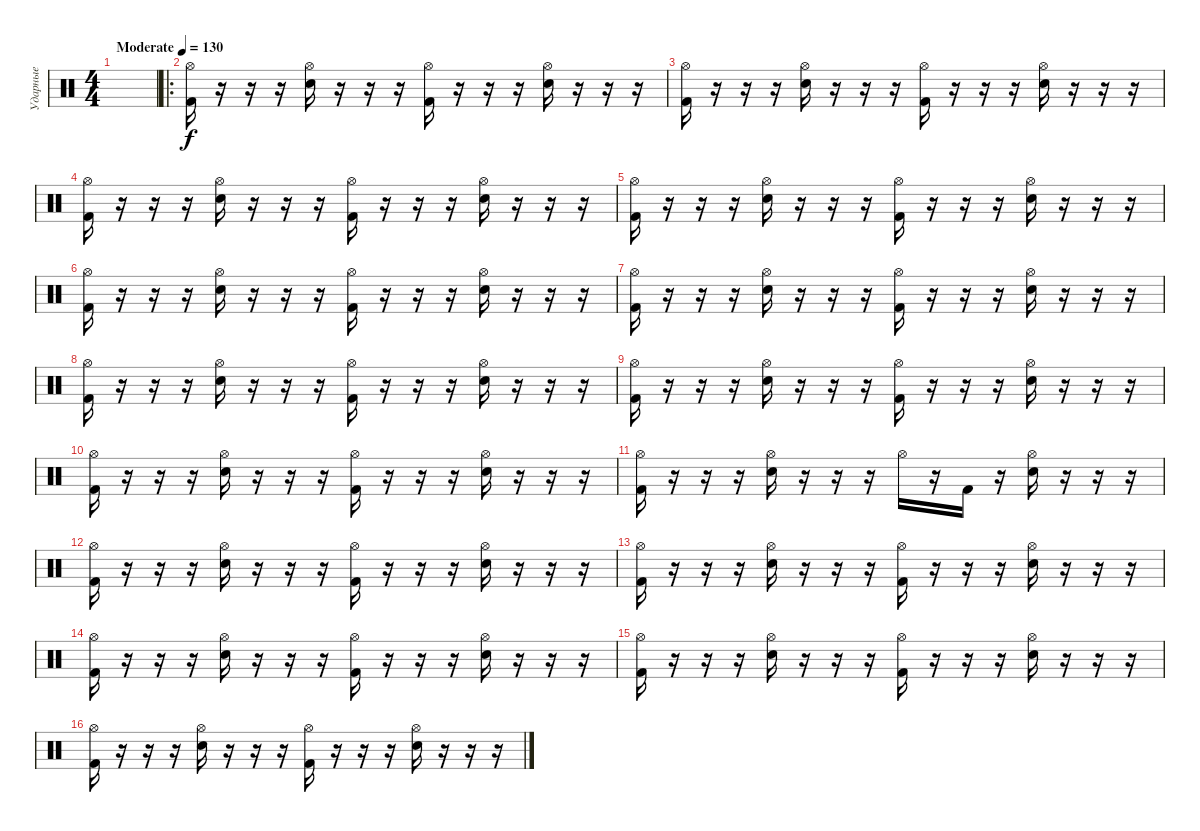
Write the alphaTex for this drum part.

\track ("Ударные" "Ударные") {instrument percussion}
\staff {score}
\articulation defaults
\ts (4 4)
\tempo (130 "Moderate")
\clef neutral
\ks c
|
\ro
("Hi-Hat (open)" "Kick (hit) 2").16 r.16 r.16 r.16 ("Hi-Hat (open)" "Electric Snare (hit)").16 r.16 r.16 r.16 ("Hi-Hat (open)" "Kick (hit) 2").16 r.16 r.16 r.16 ("Hi-Hat (open)" "Electric Snare (hit)").16 r.16 r.16 r.16 |
("Hi-Hat (open)" "Kick (hit) 2").16 r.16 r.16 r.16 ("Hi-Hat (open)" "Electric Snare (hit)").16 r.16 r.16 r.16 ("Hi-Hat (open)" "Kick (hit) 2").16 r.16 r.16 r.16 ("Hi-Hat (open)" "Electric Snare (hit)").16 r.16 r.16 r.16 |
("Hi-Hat (open)" "Kick (hit) 2").16 r.16 r.16 r.16 ("Hi-Hat (open)" "Electric Snare (hit)").16 r.16 r.16 r.16 ("Hi-Hat (open)" "Kick (hit) 2").16 r.16 r.16 r.16 ("Hi-Hat (open)" "Electric Snare (hit)").16 r.16 r.16 r.16 |
("Hi-Hat (open)" "Kick (hit) 2").16 r.16 r.16 r.16 ("Hi-Hat (open)" "Electric Snare (hit)").16 r.16 r.16 r.16 ("Hi-Hat (open)" "Kick (hit) 2").16 r.16 r.16 r.16 ("Hi-Hat (open)" "Electric Snare (hit)").16 r.16 r.16 r.16 |
("Hi-Hat (open)" "Kick (hit) 2").16 r.16 r.16 r.16 ("Hi-Hat (open)" "Electric Snare (hit)").16 r.16 r.16 r.16 ("Hi-Hat (open)" "Kick (hit) 2").16 r.16 r.16 r.16 ("Hi-Hat (open)" "Electric Snare (hit)").16 r.16 r.16 r.16 |
("Hi-Hat (open)" "Kick (hit) 2").16 r.16 r.16 r.16 ("Hi-Hat (open)" "Electric Snare (hit)").16 r.16 r.16 r.16 ("Hi-Hat (open)" "Kick (hit) 2").16 r.16 r.16 r.16 ("Hi-Hat (open)" "Electric Snare (hit)").16 r.16 r.16 r.16 |
("Hi-Hat (open)" "Kick (hit) 2").16 r.16 r.16 r.16 ("Hi-Hat (open)" "Electric Snare (hit)").16 r.16 r.16 r.16 ("Hi-Hat (open)" "Kick (hit) 2").16 r.16 r.16 r.16 ("Hi-Hat (open)" "Electric Snare (hit)").16 r.16 r.16 r.16 |
("Hi-Hat (open)" "Kick (hit) 2").16 r.16 r.16 r.16 ("Hi-Hat (open)" "Electric Snare (hit)").16 r.16 r.16 r.16 ("Hi-Hat (open)" "Kick (hit) 2").16 r.16 r.16 r.16 ("Hi-Hat (open)" "Electric Snare (hit)").16 r.16 r.16 r.16 |
("Hi-Hat (open)" "Kick (hit) 2").16 r.16 r.16 r.16 ("Hi-Hat (open)" "Electric Snare (hit)").16 r.16 r.16 r.16 ("Hi-Hat (open)" "Kick (hit) 2").16 r.16 r.16 r.16 ("Hi-Hat (open)" "Electric Snare (hit)").16 r.16 r.16 r.16 |
("Hi-Hat (open)" "Kick (hit) 2").16 r.16 r.16 r.16 ("Hi-Hat (open)" "Electric Snare (hit)").16 r.16 r.16 r.16 "Hi-Hat (open)".16 r.16 "Kick (hit) 2".16 r.16 ("Hi-Hat (open)" "Electric Snare (hit)").16 r.16 r.16 r.16 |
("Hi-Hat (open)" "Kick (hit) 2").16 r.16 r.16 r.16 ("Hi-Hat (open)" "Electric Snare (hit)").16 r.16 r.16 r.16 ("Hi-Hat (open)" "Kick (hit) 2").16 r.16 r.16 r.16 ("Hi-Hat (open)" "Electric Snare (hit)").16 r.16 r.16 r.16 |
("Hi-Hat (open)" "Kick (hit) 2").16 r.16 r.16 r.16 ("Hi-Hat (open)" "Electric Snare (hit)").16 r.16 r.16 r.16 ("Hi-Hat (open)" "Kick (hit) 2").16 r.16 r.16 r.16 ("Hi-Hat (open)" "Electric Snare (hit)").16 r.16 r.16 r.16 |
("Hi-Hat (open)" "Kick (hit) 2").16 r.16 r.16 r.16 ("Hi-Hat (open)" "Electric Snare (hit)").16 r.16 r.16 r.16 ("Hi-Hat (open)" "Kick (hit) 2").16 r.16 r.16 r.16 ("Hi-Hat (open)" "Electric Snare (hit)").16 r.16 r.16 r.16 |
("Hi-Hat (open)" "Kick (hit) 2").16 r.16 r.16 r.16 ("Hi-Hat (open)" "Electric Snare (hit)").16 r.16 r.16 r.16 ("Hi-Hat (open)" "Kick (hit) 2").16 r.16 r.16 r.16 ("Hi-Hat (open)" "Electric Snare (hit)").16 r.16 r.16 r.16 |
("Hi-Hat (open)" "Kick (hit) 2").16 r.16 r.16 r.16 ("Hi-Hat (open)" "Electric Snare (hit)").16 r.16 r.16 r.16 ("Hi-Hat (open)" "Kick (hit) 2").16 r.16 r.16 r.16 ("Hi-Hat (open)" "Electric Snare (hit)").16 r.16 r.16 r.16
